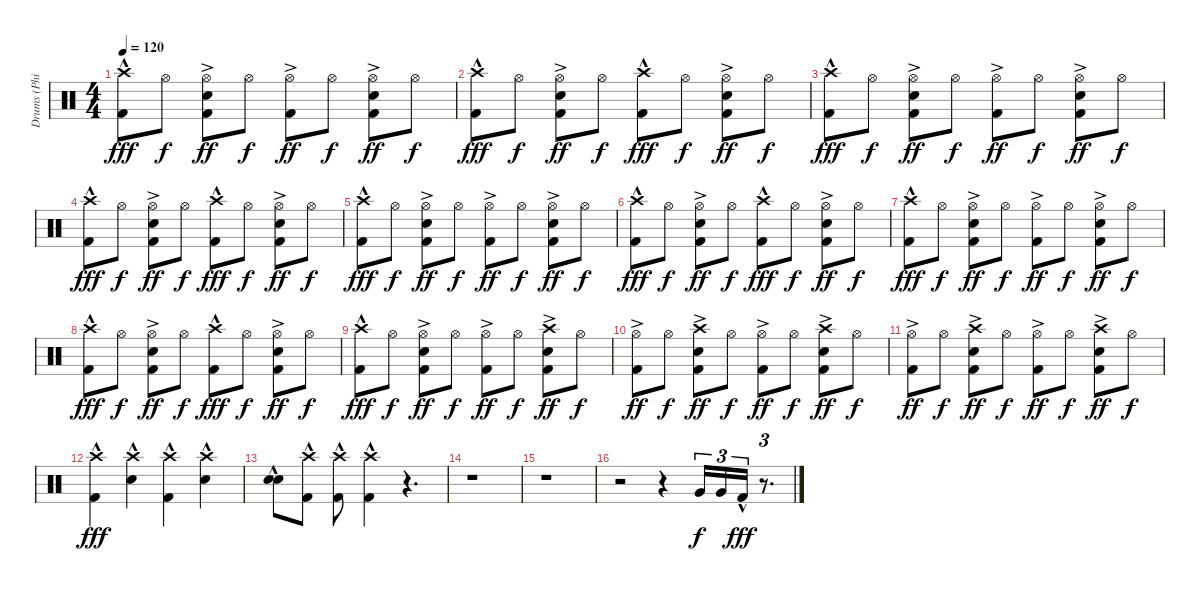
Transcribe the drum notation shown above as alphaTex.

\track ("Drums (Phil Rudd)" "Drums (Phi") {instrument percussion}
\staff {score}
\articulation defaults
\ts (4 4)
\tempo 120
\clef neutral
\ks c
("Crash high (hit)"{hac} "Kick (hit) 2").8{dy fff} "Hi-Hat (open)".8{dy f} ("Snare (hit) 2"{ac} "Hi-Hat (open)" "Kick (hit) 2").8{dy ff} "Hi-Hat (open)".8{dy f} ("Hi-Hat (open)"{ac} "Kick (hit) 2").8{dy ff} "Hi-Hat (open)".8{dy f} ("Hi-Hat (open)"{ac} "Snare (hit) 2" "Kick (hit) 2").8{dy ff} "Hi-Hat (open)".8{dy f} |
("Crash high (hit)"{hac} "Kick (hit) 2").8{dy fff} "Hi-Hat (open)".8{dy f} ("Snare (hit) 2"{ac} "Hi-Hat (open)" "Kick (hit) 2").8{dy ff} "Hi-Hat (open)".8{dy f} ("Crash high (hit)"{hac} "Kick (hit) 2").8{dy fff} "Hi-Hat (open)".8{dy f} ("Hi-Hat (open)"{ac} "Snare (hit) 2" "Kick (hit) 2").8{dy ff} "Hi-Hat (open)".8{dy f} |
("Crash high (hit)"{hac} "Kick (hit) 2").8{dy fff} "Hi-Hat (open)".8{dy f} ("Snare (hit) 2"{ac} "Hi-Hat (open)" "Kick (hit) 2").8{dy ff} "Hi-Hat (open)".8{dy f} ("Hi-Hat (open)"{ac} "Kick (hit) 2").8{dy ff} "Hi-Hat (open)".8{dy f} ("Hi-Hat (open)"{ac} "Snare (hit) 2" "Kick (hit) 2").8{dy ff} "Hi-Hat (open)".8{dy f} |
("Crash high (hit)"{hac} "Kick (hit) 2").8{dy fff} "Hi-Hat (open)".8{dy f} ("Snare (hit) 2"{ac} "Hi-Hat (open)" "Kick (hit) 2").8{dy ff} "Hi-Hat (open)".8{dy f} ("Crash high (hit)"{hac} "Kick (hit) 2").8{dy fff} "Hi-Hat (open)".8{dy f} ("Hi-Hat (open)"{ac} "Snare (hit) 2" "Kick (hit) 2").8{dy ff} "Hi-Hat (open)".8{dy f} |
("Crash high (hit)"{hac} "Kick (hit) 2").8{dy fff} "Hi-Hat (open)".8{dy f} ("Snare (hit) 2"{ac} "Hi-Hat (open)" "Kick (hit) 2").8{dy ff} "Hi-Hat (open)".8{dy f} ("Hi-Hat (open)"{ac} "Kick (hit) 2").8{dy ff} "Hi-Hat (open)".8{dy f} ("Hi-Hat (open)"{ac} "Snare (hit) 2" "Kick (hit) 2").8{dy ff} "Hi-Hat (open)".8{dy f} |
("Crash high (hit)"{hac} "Kick (hit) 2").8{dy fff} "Hi-Hat (open)".8{dy f} ("Snare (hit) 2"{ac} "Hi-Hat (open)" "Kick (hit) 2").8{dy ff} "Hi-Hat (open)".8{dy f} ("Crash high (hit)"{hac} "Kick (hit) 2").8{dy fff} "Hi-Hat (open)".8{dy f} ("Hi-Hat (open)"{ac} "Snare (hit) 2" "Kick (hit) 2").8{dy ff} "Hi-Hat (open)".8{dy f} |
("Crash high (hit)"{hac} "Kick (hit) 2").8{dy fff} "Hi-Hat (open)".8{dy f} ("Snare (hit) 2"{ac} "Hi-Hat (open)" "Kick (hit) 2").8{dy ff} "Hi-Hat (open)".8{dy f} ("Hi-Hat (open)"{ac} "Kick (hit) 2").8{dy ff} "Hi-Hat (open)".8{dy f} ("Hi-Hat (open)"{ac} "Snare (hit) 2" "Kick (hit) 2").8{dy ff} "Hi-Hat (open)".8{dy f} |
("Crash high (hit)"{hac} "Kick (hit) 2").8{dy fff} "Hi-Hat (open)".8{dy f} ("Snare (hit) 2"{ac} "Hi-Hat (open)" "Kick (hit) 2").8{dy ff} "Hi-Hat (open)".8{dy f} ("Crash high (hit)"{hac} "Kick (hit) 2").8{dy fff} "Hi-Hat (open)".8{dy f} ("Hi-Hat (open)"{ac} "Snare (hit) 2" "Kick (hit) 2").8{dy ff} "Hi-Hat (open)".8{dy f} |
("Crash high (hit)"{hac} "Kick (hit) 2").8{dy fff} "Hi-Hat (open)".8{dy f} ("Snare (hit) 2"{ac} "Hi-Hat (open)" "Kick (hit) 2").8{dy ff} "Hi-Hat (open)".8{dy f} ("Hi-Hat (open)"{ac} "Kick (hit) 2").8{dy ff} "Hi-Hat (open)".8{dy f} ("Crash high (hit)"{ac} "Snare (hit) 2" "Kick (hit) 2").8{dy ff} "Hi-Hat (open)".8{dy f} |
("Hi-Hat (open)"{ac} "Kick (hit) 2").8{dy ff} "Hi-Hat (open)".8{dy f} ("Snare (hit) 2"{ac} "Crash high (hit)" "Kick (hit) 2").8{dy ff} "Hi-Hat (open)".8{dy f} ("Hi-Hat (open)"{ac} "Kick (hit) 2").8{dy ff} "Hi-Hat (open)".8{dy f} ("Crash high (hit)"{ac} "Snare (hit) 2" "Kick (hit) 2").8{dy ff} "Hi-Hat (open)".8{dy f} |
("Hi-Hat (open)"{ac} "Kick (hit) 2").8{dy ff} "Hi-Hat (open)".8{dy f} ("Snare (hit) 2" "Crash high (hit)"{ac} "Kick (hit) 2").8{dy ff} "Hi-Hat (open)".8{dy f} ("Hi-Hat (open)"{ac} "Kick (hit) 2").8{dy ff} "Hi-Hat (open)".8{dy f} ("Crash high (hit)"{ac} "Snare (hit) 2" "Kick (hit) 2").8{dy ff} "Hi-Hat (open)".8{dy f} |
("Crash high (hit)"{hac} "Kick (hit) 2").4{dy fff} ("Crash high (hit)"{hac} "Snare (hit) 2").4 ("Crash high (hit)"{hac} "Kick (hit) 2").4 ("Crash high (hit)"{hac} "Snare (hit) 2").4 |
("Snare (hit) 2"{hac} "Snare (hit) 2").8 ("Kick (hit) 2" "Crash high (hit)"{hac}).8 ("Kick (hit) 2" "Crash high (hit)"{hac}).8 ("Kick (hit) 2" "Crash high (hit)"{hac}).4 r.4{d} |
r.1 |
r.1 |
r.2 r.4 "Very Low Tom (hit)".16{tu (3 2) dy f} "Very Low Tom (hit)".16{tu (3 2)} "Kick (hit) 2"{hac}.16{tu (3 2) dy fff} r.8{d tu (3 2)}
